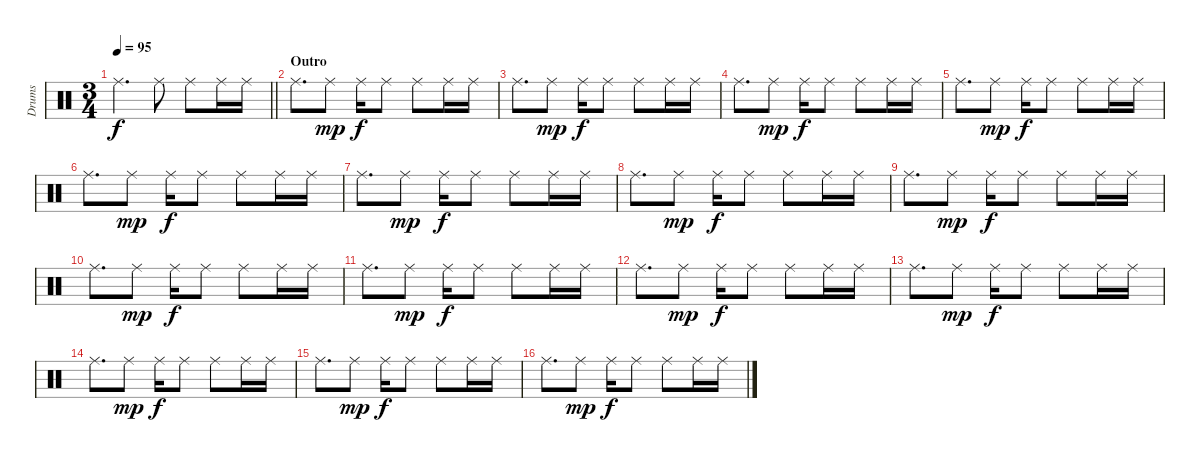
\track ("Drums" "Drums") {instrument percussion}
\staff {score}
\articulation defaults
\ts (3 4)
\tempo 95
\clef neutral
\barLineRight lightlight
\ks c "Ride (middle)".4{d dy f} "Ride (middle)".8 "Ride (middle)".8 "Ride (middle)".16 "Ride (middle)".16
|
\section ("" "Outro")
"Ride (middle)".8{d volume 8} "Ride (middle)".8{dy mp} "Ride (middle)".16{dy f} "Ride (middle)".8 "Ride (middle)".8 "Ride (middle)".16 "Ride (middle)".16 |
"Ride (middle)".8{d} "Ride (middle)".8{dy mp} "Ride (middle)".16{dy f} "Ride (middle)".8 "Ride (middle)".8 "Ride (middle)".16 "Ride (middle)".16 |
"Ride (middle)".8{d} "Ride (middle)".8{dy mp} "Ride (middle)".16{dy f} "Ride (middle)".8 "Ride (middle)".8 "Ride (middle)".16 "Ride (middle)".16 |
"Ride (middle)".8{d} "Ride (middle)".8{dy mp} "Ride (middle)".16{dy f} "Ride (middle)".8 "Ride (middle)".8 "Ride (middle)".16 "Ride (middle)".16 |
"Ride (middle)".8{d} "Ride (middle)".8{dy mp} "Ride (middle)".16{dy f} "Ride (middle)".8 "Ride (middle)".8 "Ride (middle)".16 "Ride (middle)".16 |
"Ride (middle)".8{d} "Ride (middle)".8{dy mp} "Ride (middle)".16{dy f} "Ride (middle)".8 "Ride (middle)".8 "Ride (middle)".16 "Ride (middle)".16 |
"Ride (middle)".8{d} "Ride (middle)".8{dy mp} "Ride (middle)".16{dy f} "Ride (middle)".8 "Ride (middle)".8 "Ride (middle)".16 "Ride (middle)".16 |
"Ride (middle)".8{d} "Ride (middle)".8{dy mp} "Ride (middle)".16{dy f} "Ride (middle)".8 "Ride (middle)".8 "Ride (middle)".16 "Ride (middle)".16 |
"Ride (middle)".8{d volume 8} "Ride (middle)".8{dy mp} "Ride (middle)".16{dy f} "Ride (middle)".8 "Ride (middle)".8 "Ride (middle)".16 "Ride (middle)".16 |
"Ride (middle)".8{d} "Ride (middle)".8{dy mp} "Ride (middle)".16{dy f} "Ride (middle)".8 "Ride (middle)".8 "Ride (middle)".16 "Ride (middle)".16 |
"Ride (middle)".8{d} "Ride (middle)".8{dy mp} "Ride (middle)".16{dy f} "Ride (middle)".8 "Ride (middle)".8 "Ride (middle)".16 "Ride (middle)".16 |
"Ride (middle)".8{d} "Ride (middle)".8{dy mp} "Ride (middle)".16{dy f} "Ride (middle)".8 "Ride (middle)".8 "Ride (middle)".16 "Ride (middle)".16 |
"Ride (middle)".8{d} "Ride (middle)".8{dy mp} "Ride (middle)".16{dy f} "Ride (middle)".8 "Ride (middle)".8 "Ride (middle)".16 "Ride (middle)".16 |
"Ride (middle)".8{d} "Ride (middle)".8{dy mp} "Ride (middle)".16{dy f} "Ride (middle)".8 "Ride (middle)".8 "Ride (middle)".16 "Ride (middle)".16 |
"Ride (middle)".8{d} "Ride (middle)".8{dy mp} "Ride (middle)".16{dy f} "Ride (middle)".8 "Ride (middle)".8 "Ride (middle)".16 "Ride (middle)".16
